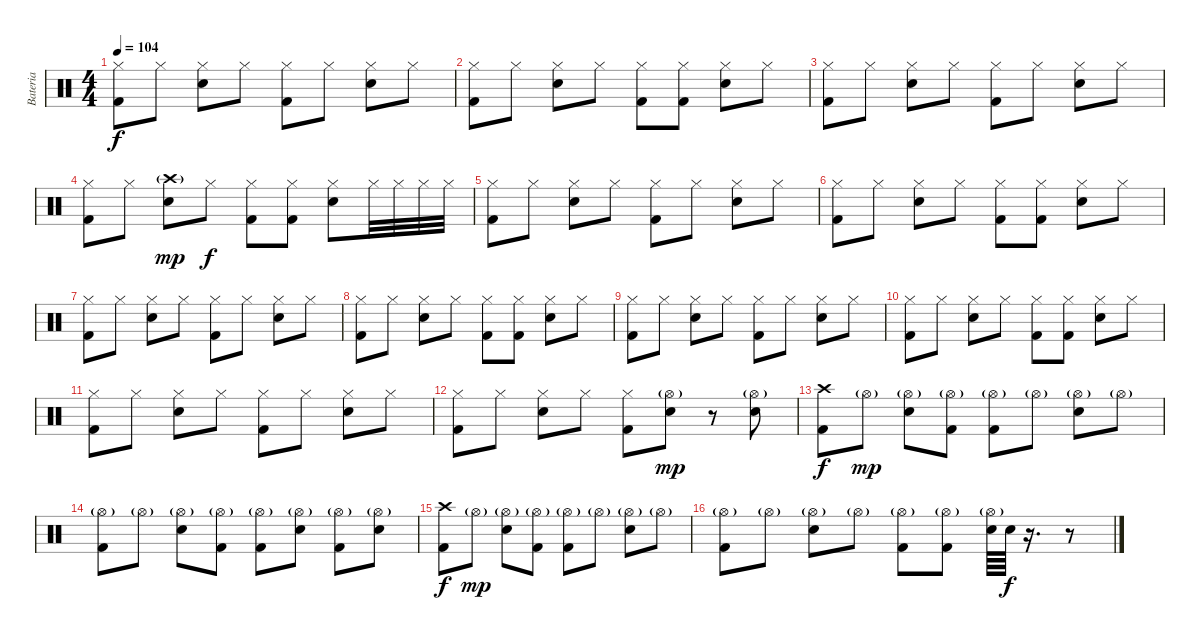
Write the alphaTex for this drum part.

\track ("Bateria" "Bateria") {instrument percussion}
\staff {score}
\articulation defaults
\ts (4 4)
\tempo 104
\clef neutral
\ks c
("Hi-Hat (closed)" "Kick (hit) 2").8{dy f} "Hi-Hat (closed)".8 ("Hi-Hat (closed)" "Snare (hit) 2").8 "Hi-Hat (closed)".8 ("Hi-Hat (closed)" "Kick (hit) 2").8 "Hi-Hat (closed)".8 ("Hi-Hat (closed)" "Snare (hit) 2").8 "Hi-Hat (closed)".8 |
("Hi-Hat (closed)" "Kick (hit) 2").8 "Hi-Hat (closed)".8 ("Hi-Hat (closed)" "Snare (hit) 2").8 "Hi-Hat (closed)".8 ("Hi-Hat (closed)" "Kick (hit) 2").8 ("Hi-Hat (closed)" "Kick (hit) 2").8 ("Hi-Hat (closed)" "Snare (hit) 2").8 "Hi-Hat (closed)".8 |
("Hi-Hat (closed)" "Kick (hit) 2").8 "Hi-Hat (closed)".8 ("Hi-Hat (closed)" "Snare (hit) 2").8 "Hi-Hat (closed)".8 ("Hi-Hat (closed)" "Kick (hit) 2").8 "Hi-Hat (closed)".8 ("Hi-Hat (closed)" "Snare (hit) 2").8 "Hi-Hat (closed)".8 |
("Hi-Hat (closed)" "Kick (hit) 2").8 "Hi-Hat (closed)".8 ("Crash high (hit)"{g} "Snare (hit) 2").8{dy mp} "Hi-Hat (closed)".8{dy f} ("Hi-Hat (closed)" "Kick (hit) 2").8 ("Hi-Hat (closed)" "Kick (hit) 2").8 ("Hi-Hat (closed)" "Snare (hit) 2").8 "Hi-Hat (closed)".32 "Hi-Hat (closed)".32 "Hi-Hat (closed)".32 "Hi-Hat (closed)".32 |
("Hi-Hat (closed)" "Kick (hit) 2").8 "Hi-Hat (closed)".8 ("Hi-Hat (closed)" "Snare (hit) 2").8 "Hi-Hat (closed)".8 ("Hi-Hat (closed)" "Kick (hit) 2").8 "Hi-Hat (closed)".8 ("Hi-Hat (closed)" "Snare (hit) 2").8 "Hi-Hat (closed)".8 |
("Hi-Hat (closed)" "Kick (hit) 2").8 "Hi-Hat (closed)".8 ("Hi-Hat (closed)" "Snare (hit) 2").8 "Hi-Hat (closed)".8 ("Hi-Hat (closed)" "Kick (hit) 2").8 ("Hi-Hat (closed)" "Kick (hit) 2").8 ("Hi-Hat (closed)" "Snare (hit) 2").8 "Hi-Hat (closed)".8 |
("Hi-Hat (closed)" "Kick (hit) 2").8 "Hi-Hat (closed)".8 ("Hi-Hat (closed)" "Snare (hit) 2").8 "Hi-Hat (closed)".8 ("Hi-Hat (closed)" "Kick (hit) 2").8 "Hi-Hat (closed)".8 ("Hi-Hat (closed)" "Snare (hit) 2").8 "Hi-Hat (closed)".8 |
("Hi-Hat (closed)" "Kick (hit) 2").8 "Hi-Hat (closed)".8 ("Hi-Hat (closed)" "Snare (hit) 2").8 "Hi-Hat (closed)".8 ("Hi-Hat (closed)" "Kick (hit) 2").8 ("Hi-Hat (closed)" "Kick (hit) 2").8 ("Hi-Hat (closed)" "Snare (hit) 2").8 "Hi-Hat (closed)".8 |
("Hi-Hat (closed)" "Kick (hit) 2").8 "Hi-Hat (closed)".8 ("Hi-Hat (closed)" "Snare (hit) 2").8 "Hi-Hat (closed)".8 ("Hi-Hat (closed)" "Kick (hit) 2").8 "Hi-Hat (closed)".8 ("Hi-Hat (closed)" "Snare (hit) 2").8 "Hi-Hat (closed)".8 |
("Hi-Hat (closed)" "Kick (hit) 2").8 "Hi-Hat (closed)".8 ("Hi-Hat (closed)" "Snare (hit) 2").8 "Hi-Hat (closed)".8 ("Hi-Hat (closed)" "Kick (hit) 2").8 ("Hi-Hat (closed)" "Kick (hit) 2").8 ("Hi-Hat (closed)" "Snare (hit) 2").8 "Hi-Hat (closed)".8 |
("Hi-Hat (closed)" "Kick (hit) 2").8 "Hi-Hat (closed)".8 ("Hi-Hat (closed)" "Snare (hit) 2").8 "Hi-Hat (closed)".8 ("Hi-Hat (closed)" "Kick (hit) 2").8 "Hi-Hat (closed)".8 ("Hi-Hat (closed)" "Snare (hit) 2").8 "Hi-Hat (closed)".8 |
("Hi-Hat (closed)" "Kick (hit) 2").8 "Hi-Hat (closed)".8 ("Hi-Hat (closed)" "Snare (hit) 2").8 "Hi-Hat (closed)".8 ("Hi-Hat (closed)" "Kick (hit) 2").8 ("Hi-Hat (open)"{g} "Snare (hit) 2").8{dy mp} r.8 ("Hi-Hat (open)"{g} "Snare (hit) 2").8 |
("Crash high (hit)" "Kick (hit) 2").8{dy f} "Hi-Hat (open)"{g}.8{dy mp} ("Hi-Hat (open)"{g} "Snare (hit) 2").8 ("Hi-Hat (open)"{g} "Kick (hit) 2").8 ("Hi-Hat (open)"{g} "Kick (hit) 2").8 "Hi-Hat (open)"{g}.8 ("Hi-Hat (open)"{g} "Snare (hit) 2").8 "Hi-Hat (open)"{g}.8 |
("Hi-Hat (open)"{g} "Kick (hit) 2").8 "Hi-Hat (open)"{g}.8 ("Hi-Hat (open)"{g} "Snare (hit) 2").8 ("Hi-Hat (open)"{g} "Kick (hit) 2").8 ("Hi-Hat (open)"{g} "Kick (hit) 2").8 ("Hi-Hat (open)"{g} "Snare (hit) 2").8 ("Hi-Hat (open)"{g} "Kick (hit) 2").8 ("Hi-Hat (open)"{g} "Snare (hit) 2").8 |
("Crash high (hit)" "Kick (hit) 2").8{dy f} "Hi-Hat (open)"{g}.8{dy mp} ("Hi-Hat (open)"{g} "Snare (hit) 2").8 ("Hi-Hat (open)"{g} "Kick (hit) 2").8 ("Hi-Hat (open)"{g} "Kick (hit) 2").8 "Hi-Hat (open)"{g}.8 ("Hi-Hat (open)"{g} "Snare (hit) 2").8 "Hi-Hat (open)"{g}.8 |
("Hi-Hat (open)"{g} "Kick (hit) 2").8 "Hi-Hat (open)"{g}.8 ("Hi-Hat (open)"{g} "Snare (hit) 2").8 "Hi-Hat (open)"{g}.8 ("Hi-Hat (open)"{g} "Kick (hit) 2").8 ("Hi-Hat (open)"{g} "Kick (hit) 2").8 ("Hi-Hat (open)"{g} "Snare (hit) 2").64 "Snare (hit) 2".64{dy f} r.16{d} r.8
